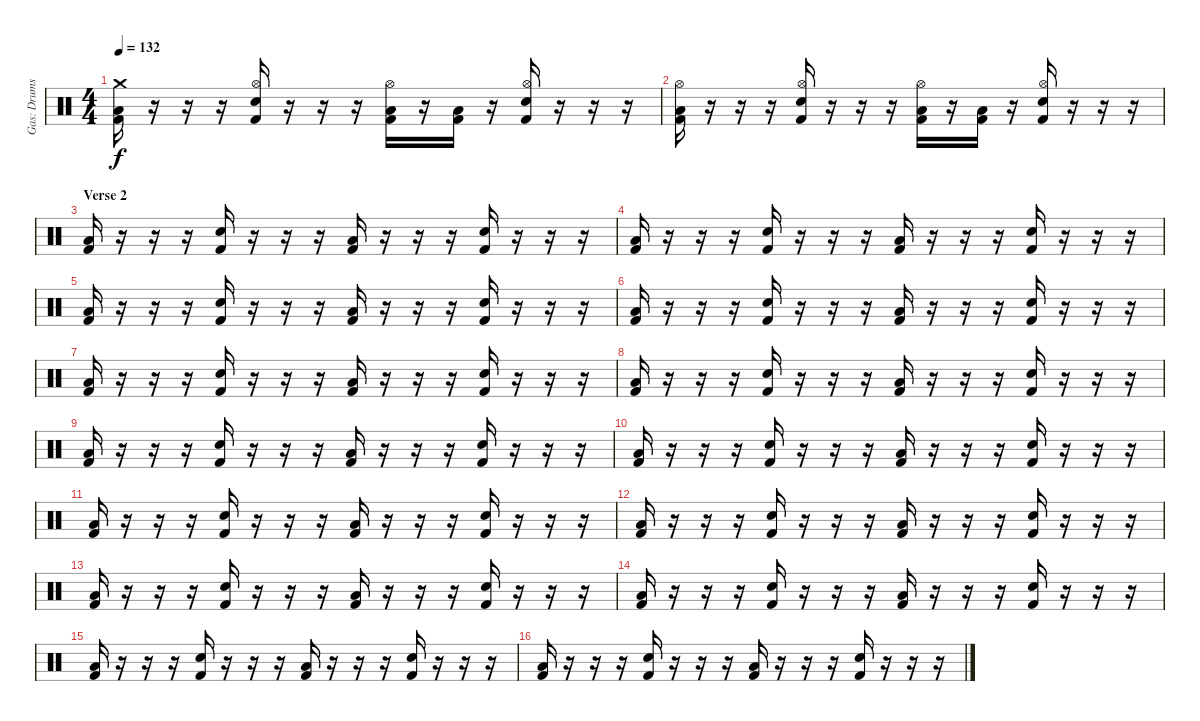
\track ("Gas: Drums" "Gas: Drums") {instrument percussion}
\staff {score}
\articulation defaults
\ts (4 4)
\tempo 132
\clef neutral
\ks c
("Crash medium (hit)" "Low Tom (hit)" "Kick (hit) 2").16{dy f} r.16 r.16 r.16 ("Hi-Hat (open)" "Electric Snare (hit)" "Kick (hit) 2").16 r.16 r.16 r.16 ("Hi-Hat (open)" "Low Tom (hit)" "Kick (hit) 2").16 r.16 ("Low Tom (hit)" "Kick (hit) 2").16 r.16 ("Hi-Hat (open)" "Electric Snare (hit)" "Kick (hit) 2").16 r.16 r.16 r.16 |
("Hi-Hat (open)" "Low Tom (hit)" "Kick (hit) 2").16 r.16 r.16 r.16 ("Hi-Hat (open)" "Electric Snare (hit)" "Kick (hit) 2").16 r.16 r.16 r.16 ("Hi-Hat (open)" "Low Tom (hit)" "Kick (hit) 2").16 r.16 ("Low Tom (hit)" "Kick (hit) 2").16 r.16 ("Hi-Hat (open)" "Electric Snare (hit)" "Kick (hit) 2").16 r.16 r.16 r.16 |
\section ("" "Verse 2")
("Low Tom (hit)" "Kick (hit) 2").16 r.16 r.16 r.16 ("Electric Snare (hit)" "Kick (hit) 2").16 r.16 r.16 r.16 ("Low Tom (hit)" "Kick (hit) 2").16 r.16 r.16 r.16 ("Electric Snare (hit)" "Kick (hit) 2").16 r.16 r.16 r.16 |
("Low Tom (hit)" "Kick (hit) 2").16 r.16 r.16 r.16 ("Electric Snare (hit)" "Kick (hit) 2").16 r.16 r.16 r.16 ("Low Tom (hit)" "Kick (hit) 2").16 r.16 r.16 r.16 ("Electric Snare (hit)" "Kick (hit) 2").16 r.16 r.16 r.16 |
("Low Tom (hit)" "Kick (hit) 2").16 r.16 r.16 r.16 ("Electric Snare (hit)" "Kick (hit) 2").16 r.16 r.16 r.16 ("Low Tom (hit)" "Kick (hit) 2").16 r.16 r.16 r.16 ("Electric Snare (hit)" "Kick (hit) 2").16 r.16 r.16 r.16 |
("Low Tom (hit)" "Kick (hit) 2").16 r.16 r.16 r.16 ("Electric Snare (hit)" "Kick (hit) 2").16 r.16 r.16 r.16 ("Low Tom (hit)" "Kick (hit) 2").16 r.16 r.16 r.16 ("Electric Snare (hit)" "Kick (hit) 2").16 r.16 r.16 r.16 |
("Low Tom (hit)" "Kick (hit) 2").16 r.16 r.16 r.16 ("Electric Snare (hit)" "Kick (hit) 2").16 r.16 r.16 r.16 ("Low Tom (hit)" "Kick (hit) 2").16 r.16 r.16 r.16 ("Electric Snare (hit)" "Kick (hit) 2").16 r.16 r.16 r.16 |
("Low Tom (hit)" "Kick (hit) 2").16 r.16 r.16 r.16 ("Electric Snare (hit)" "Kick (hit) 2").16 r.16 r.16 r.16 ("Low Tom (hit)" "Kick (hit) 2").16 r.16 r.16 r.16 ("Electric Snare (hit)" "Kick (hit) 2").16 r.16 r.16 r.16 |
("Low Tom (hit)" "Kick (hit) 2").16 r.16 r.16 r.16 ("Electric Snare (hit)" "Kick (hit) 2").16 r.16 r.16 r.16 ("Low Tom (hit)" "Kick (hit) 2").16 r.16 r.16 r.16 ("Electric Snare (hit)" "Kick (hit) 2").16 r.16 r.16 r.16 |
("Low Tom (hit)" "Kick (hit) 2").16 r.16 r.16 r.16 ("Electric Snare (hit)" "Kick (hit) 2").16 r.16 r.16 r.16 ("Low Tom (hit)" "Kick (hit) 2").16 r.16 r.16 r.16 ("Electric Snare (hit)" "Kick (hit) 2").16 r.16 r.16 r.16 |
("Low Tom (hit)" "Kick (hit) 2").16 r.16 r.16 r.16 ("Electric Snare (hit)" "Kick (hit) 2").16 r.16 r.16 r.16 ("Low Tom (hit)" "Kick (hit) 2").16 r.16 r.16 r.16 ("Electric Snare (hit)" "Kick (hit) 2").16 r.16 r.16 r.16 |
("Low Tom (hit)" "Kick (hit) 2").16 r.16 r.16 r.16 ("Electric Snare (hit)" "Kick (hit) 2").16 r.16 r.16 r.16 ("Low Tom (hit)" "Kick (hit) 2").16 r.16 r.16 r.16 ("Electric Snare (hit)" "Kick (hit) 2").16 r.16 r.16 r.16 |
("Low Tom (hit)" "Kick (hit) 2").16 r.16 r.16 r.16 ("Electric Snare (hit)" "Kick (hit) 2").16 r.16 r.16 r.16 ("Low Tom (hit)" "Kick (hit) 2").16 r.16 r.16 r.16 ("Electric Snare (hit)" "Kick (hit) 2").16 r.16 r.16 r.16 |
("Low Tom (hit)" "Kick (hit) 2").16 r.16 r.16 r.16 ("Electric Snare (hit)" "Kick (hit) 2").16 r.16 r.16 r.16 ("Low Tom (hit)" "Kick (hit) 2").16 r.16 r.16 r.16 ("Electric Snare (hit)" "Kick (hit) 2").16 r.16 r.16 r.16 |
("Low Tom (hit)" "Kick (hit) 2").16 r.16 r.16 r.16 ("Electric Snare (hit)" "Kick (hit) 2").16 r.16 r.16 r.16 ("Low Tom (hit)" "Kick (hit) 2").16 r.16 r.16 r.16 ("Electric Snare (hit)" "Kick (hit) 2").16 r.16 r.16 r.16 |
("Low Tom (hit)" "Kick (hit) 2").16 r.16 r.16 r.16 ("Electric Snare (hit)" "Kick (hit) 2").16 r.16 r.16 r.16 ("Low Tom (hit)" "Kick (hit) 2").16 r.16 r.16 r.16 ("Electric Snare (hit)" "Kick (hit) 2").16 r.16 r.16 r.16
